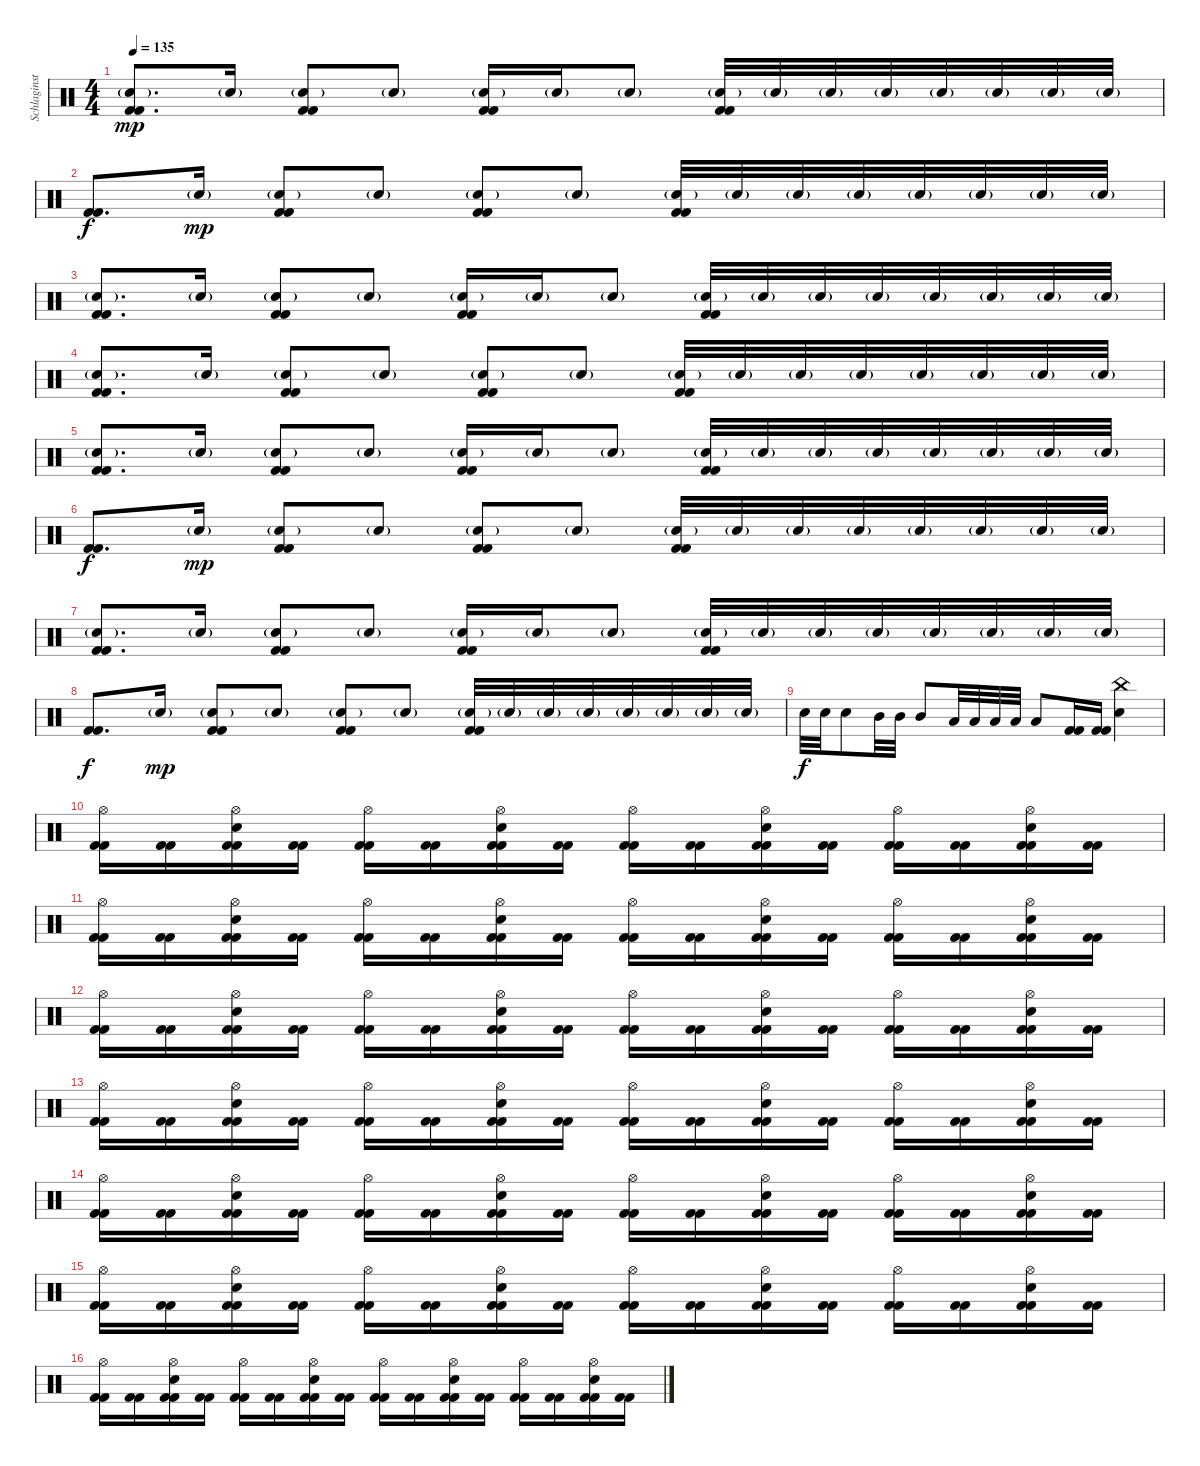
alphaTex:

\track ("Schlaginstrumente - Auswahl" "Schlaginst") {instrument percussion}
\staff {score}
\articulation defaults
\ts (4 4)
\tempo 135
\clef neutral
\ks c
("Snare (hit) 2"{g} "Kick (hit) 2" "Kick (hit) 2").8{d dy mp} "Snare (hit) 2"{g}.16 ("Snare (hit) 2"{g} "Kick (hit) 2" "Kick (hit) 2").8 "Snare (hit) 2"{g}.8 ("Snare (hit) 2"{g} "Kick (hit) 2" "Kick (hit) 2").16 "Snare (hit) 2"{g}.16 "Snare (hit) 2"{g}.8 ("Snare (hit) 2"{g} "Kick (hit) 2" "Kick (hit) 2").32 "Snare (hit) 2"{g}.32 "Snare (hit) 2"{g}.32 "Snare (hit) 2"{g}.32 "Snare (hit) 2"{g}.32 "Snare (hit) 2"{g}.32 "Snare (hit) 2"{g}.32 "Snare (hit) 2"{g}.32 |
("Kick (hit) 2" "Kick (hit) 2").8{d dy f} "Snare (hit) 2"{g}.16{dy mp} ("Snare (hit) 2"{g} "Kick (hit) 2" "Kick (hit) 2").8 "Snare (hit) 2"{g}.8 ("Snare (hit) 2"{g} "Kick (hit) 2" "Kick (hit) 2").8 "Snare (hit) 2"{g}.8 ("Snare (hit) 2"{g} "Kick (hit) 2" "Kick (hit) 2").32 "Snare (hit) 2"{g}.32 "Snare (hit) 2"{g}.32 "Snare (hit) 2"{g}.32 "Snare (hit) 2"{g}.32 "Snare (hit) 2"{g}.32 "Snare (hit) 2"{g}.32 "Snare (hit) 2"{g}.32 |
("Snare (hit) 2"{g} "Kick (hit) 2" "Kick (hit) 2").8{d} "Snare (hit) 2"{g}.16 ("Snare (hit) 2"{g} "Kick (hit) 2" "Kick (hit) 2").8 "Snare (hit) 2"{g}.8 ("Snare (hit) 2"{g} "Kick (hit) 2" "Kick (hit) 2").16 "Snare (hit) 2"{g}.16 "Snare (hit) 2"{g}.8 ("Snare (hit) 2"{g} "Kick (hit) 2" "Kick (hit) 2").32 "Snare (hit) 2"{g}.32 "Snare (hit) 2"{g}.32 "Snare (hit) 2"{g}.32 "Snare (hit) 2"{g}.32 "Snare (hit) 2"{g}.32 "Snare (hit) 2"{g}.32 "Snare (hit) 2"{g}.32 |
("Snare (hit) 2"{g} "Kick (hit) 2" "Kick (hit) 2").8{d} "Snare (hit) 2"{g}.16 ("Snare (hit) 2"{g} "Kick (hit) 2" "Kick (hit) 2").8 "Snare (hit) 2"{g}.8 ("Snare (hit) 2"{g} "Kick (hit) 2" "Kick (hit) 2").8 "Snare (hit) 2"{g}.8 ("Snare (hit) 2"{g} "Kick (hit) 2" "Kick (hit) 2").32 "Snare (hit) 2"{g}.32 "Snare (hit) 2"{g}.32 "Snare (hit) 2"{g}.32 "Snare (hit) 2"{g}.32 "Snare (hit) 2"{g}.32 "Snare (hit) 2"{g}.32 "Snare (hit) 2"{g}.32 |
("Snare (hit) 2"{g} "Kick (hit) 2" "Kick (hit) 2").8{d} "Snare (hit) 2"{g}.16 ("Snare (hit) 2"{g} "Kick (hit) 2" "Kick (hit) 2").8 "Snare (hit) 2"{g}.8 ("Snare (hit) 2"{g} "Kick (hit) 2" "Kick (hit) 2").16 "Snare (hit) 2"{g}.16 "Snare (hit) 2"{g}.8 ("Snare (hit) 2"{g} "Kick (hit) 2" "Kick (hit) 2").32 "Snare (hit) 2"{g}.32 "Snare (hit) 2"{g}.32 "Snare (hit) 2"{g}.32 "Snare (hit) 2"{g}.32 "Snare (hit) 2"{g}.32 "Snare (hit) 2"{g}.32 "Snare (hit) 2"{g}.32 |
("Kick (hit) 2" "Kick (hit) 2").8{d dy f} "Snare (hit) 2"{g}.16{dy mp} ("Snare (hit) 2"{g} "Kick (hit) 2" "Kick (hit) 2").8 "Snare (hit) 2"{g}.8 ("Snare (hit) 2"{g} "Kick (hit) 2" "Kick (hit) 2").8 "Snare (hit) 2"{g}.8 ("Snare (hit) 2"{g} "Kick (hit) 2" "Kick (hit) 2").32 "Snare (hit) 2"{g}.32 "Snare (hit) 2"{g}.32 "Snare (hit) 2"{g}.32 "Snare (hit) 2"{g}.32 "Snare (hit) 2"{g}.32 "Snare (hit) 2"{g}.32 "Snare (hit) 2"{g}.32 |
("Snare (hit) 2"{g} "Kick (hit) 2" "Kick (hit) 2").8{d} "Snare (hit) 2"{g}.16 ("Snare (hit) 2"{g} "Kick (hit) 2" "Kick (hit) 2").8 "Snare (hit) 2"{g}.8 ("Snare (hit) 2"{g} "Kick (hit) 2" "Kick (hit) 2").16 "Snare (hit) 2"{g}.16 "Snare (hit) 2"{g}.8 ("Snare (hit) 2"{g} "Kick (hit) 2" "Kick (hit) 2").32 "Snare (hit) 2"{g}.32 "Snare (hit) 2"{g}.32 "Snare (hit) 2"{g}.32 "Snare (hit) 2"{g}.32 "Snare (hit) 2"{g}.32 "Snare (hit) 2"{g}.32 "Snare (hit) 2"{g}.32 |
("Kick (hit) 2" "Kick (hit) 2").8{d dy f} "Snare (hit) 2"{g}.16{dy mp} ("Snare (hit) 2"{g} "Kick (hit) 2" "Kick (hit) 2").8 "Snare (hit) 2"{g}.8 ("Snare (hit) 2"{g} "Kick (hit) 2" "Kick (hit) 2").8 "Snare (hit) 2"{g}.8 ("Snare (hit) 2"{g} "Kick (hit) 2" "Kick (hit) 2").32 "Snare (hit) 2"{g}.32 "Snare (hit) 2"{g}.32 "Snare (hit) 2"{g}.32 "Snare (hit) 2"{g}.32 "Snare (hit) 2"{g}.32 "Snare (hit) 2"{g}.32 "Snare (hit) 2"{g}.32 |
"Snare (hit) 2".32{dy f} "Snare (hit) 2".32 "Snare (hit) 2".8 "Mid Tom (hit)".32 "Mid Tom (hit)".32 "Mid Tom (hit)".8 "Low Tom (hit)".32 "Low Tom (hit)".32 "Low Tom (hit)".32 "Low Tom (hit)".32 "Low Tom (hit)".8 ("Kick (hit) 2" "Kick (hit) 2").16 ("Kick (hit) 2" "Kick (hit) 2").16 ("China (hit)" "Snare (hit) 2").4 |
("Hi-Hat (open)" "Kick (hit) 2" "Kick (hit) 2").16 ("Kick (hit) 2" "Kick (hit) 2").16 ("Hi-Hat (open)" "Snare (hit) 2" "Kick (hit) 2" "Kick (hit) 2").16 ("Kick (hit) 2" "Kick (hit) 2").16 ("Hi-Hat (open)" "Kick (hit) 2" "Kick (hit) 2").16 ("Kick (hit) 2" "Kick (hit) 2").16 ("Hi-Hat (open)" "Snare (hit) 2" "Kick (hit) 2" "Kick (hit) 2").16 ("Kick (hit) 2" "Kick (hit) 2").16 ("Hi-Hat (open)" "Kick (hit) 2" "Kick (hit) 2").16 ("Kick (hit) 2" "Kick (hit) 2").16 ("Hi-Hat (open)" "Snare (hit) 2" "Kick (hit) 2" "Kick (hit) 2").16 ("Kick (hit) 2" "Kick (hit) 2").16 ("Hi-Hat (open)" "Kick (hit) 2" "Kick (hit) 2").16 ("Kick (hit) 2" "Kick (hit) 2").16 ("Hi-Hat (open)" "Snare (hit) 2" "Kick (hit) 2" "Kick (hit) 2").16 ("Kick (hit) 2" "Kick (hit) 2").16 |
("Hi-Hat (open)" "Kick (hit) 2" "Kick (hit) 2").16 ("Kick (hit) 2" "Kick (hit) 2").16 ("Hi-Hat (open)" "Snare (hit) 2" "Kick (hit) 2" "Kick (hit) 2").16 ("Kick (hit) 2" "Kick (hit) 2").16 ("Hi-Hat (open)" "Kick (hit) 2" "Kick (hit) 2").16 ("Kick (hit) 2" "Kick (hit) 2").16 ("Hi-Hat (open)" "Snare (hit) 2" "Kick (hit) 2" "Kick (hit) 2").16 ("Kick (hit) 2" "Kick (hit) 2").16 ("Hi-Hat (open)" "Kick (hit) 2" "Kick (hit) 2").16 ("Kick (hit) 2" "Kick (hit) 2").16 ("Hi-Hat (open)" "Snare (hit) 2" "Kick (hit) 2" "Kick (hit) 2").16 ("Kick (hit) 2" "Kick (hit) 2").16 ("Hi-Hat (open)" "Kick (hit) 2" "Kick (hit) 2").16 ("Kick (hit) 2" "Kick (hit) 2").16 ("Hi-Hat (open)" "Snare (hit) 2" "Kick (hit) 2" "Kick (hit) 2").16 ("Kick (hit) 2" "Kick (hit) 2").16 |
("Hi-Hat (open)" "Kick (hit) 2" "Kick (hit) 2").16 ("Kick (hit) 2" "Kick (hit) 2").16 ("Hi-Hat (open)" "Snare (hit) 2" "Kick (hit) 2" "Kick (hit) 2").16 ("Kick (hit) 2" "Kick (hit) 2").16 ("Hi-Hat (open)" "Kick (hit) 2" "Kick (hit) 2").16 ("Kick (hit) 2" "Kick (hit) 2").16 ("Hi-Hat (open)" "Snare (hit) 2" "Kick (hit) 2" "Kick (hit) 2").16 ("Kick (hit) 2" "Kick (hit) 2").16 ("Hi-Hat (open)" "Kick (hit) 2" "Kick (hit) 2").16 ("Kick (hit) 2" "Kick (hit) 2").16 ("Hi-Hat (open)" "Snare (hit) 2" "Kick (hit) 2" "Kick (hit) 2").16 ("Kick (hit) 2" "Kick (hit) 2").16 ("Hi-Hat (open)" "Kick (hit) 2" "Kick (hit) 2").16 ("Kick (hit) 2" "Kick (hit) 2").16 ("Hi-Hat (open)" "Snare (hit) 2" "Kick (hit) 2" "Kick (hit) 2").16 ("Kick (hit) 2" "Kick (hit) 2").16 |
("Hi-Hat (open)" "Kick (hit) 2" "Kick (hit) 2").16 ("Kick (hit) 2" "Kick (hit) 2").16 ("Hi-Hat (open)" "Snare (hit) 2" "Kick (hit) 2" "Kick (hit) 2").16 ("Kick (hit) 2" "Kick (hit) 2").16 ("Hi-Hat (open)" "Kick (hit) 2" "Kick (hit) 2").16 ("Kick (hit) 2" "Kick (hit) 2").16 ("Hi-Hat (open)" "Snare (hit) 2" "Kick (hit) 2" "Kick (hit) 2").16 ("Kick (hit) 2" "Kick (hit) 2").16 ("Hi-Hat (open)" "Kick (hit) 2" "Kick (hit) 2").16 ("Kick (hit) 2" "Kick (hit) 2").16 ("Hi-Hat (open)" "Snare (hit) 2" "Kick (hit) 2" "Kick (hit) 2").16 ("Kick (hit) 2" "Kick (hit) 2").16 ("Hi-Hat (open)" "Kick (hit) 2" "Kick (hit) 2").16 ("Kick (hit) 2" "Kick (hit) 2").16 ("Hi-Hat (open)" "Snare (hit) 2" "Kick (hit) 2" "Kick (hit) 2").16 ("Kick (hit) 2" "Kick (hit) 2").16 |
("Hi-Hat (open)" "Kick (hit) 2" "Kick (hit) 2").16 ("Kick (hit) 2" "Kick (hit) 2").16 ("Hi-Hat (open)" "Snare (hit) 2" "Kick (hit) 2" "Kick (hit) 2").16 ("Kick (hit) 2" "Kick (hit) 2").16 ("Hi-Hat (open)" "Kick (hit) 2" "Kick (hit) 2").16 ("Kick (hit) 2" "Kick (hit) 2").16 ("Hi-Hat (open)" "Snare (hit) 2" "Kick (hit) 2" "Kick (hit) 2").16 ("Kick (hit) 2" "Kick (hit) 2").16 ("Hi-Hat (open)" "Kick (hit) 2" "Kick (hit) 2").16 ("Kick (hit) 2" "Kick (hit) 2").16 ("Hi-Hat (open)" "Snare (hit) 2" "Kick (hit) 2" "Kick (hit) 2").16 ("Kick (hit) 2" "Kick (hit) 2").16 ("Hi-Hat (open)" "Kick (hit) 2" "Kick (hit) 2").16 ("Kick (hit) 2" "Kick (hit) 2").16 ("Hi-Hat (open)" "Snare (hit) 2" "Kick (hit) 2" "Kick (hit) 2").16 ("Kick (hit) 2" "Kick (hit) 2").16 |
("Hi-Hat (open)" "Kick (hit) 2" "Kick (hit) 2").16 ("Kick (hit) 2" "Kick (hit) 2").16 ("Hi-Hat (open)" "Snare (hit) 2" "Kick (hit) 2" "Kick (hit) 2").16 ("Kick (hit) 2" "Kick (hit) 2").16 ("Hi-Hat (open)" "Kick (hit) 2" "Kick (hit) 2").16 ("Kick (hit) 2" "Kick (hit) 2").16 ("Hi-Hat (open)" "Snare (hit) 2" "Kick (hit) 2" "Kick (hit) 2").16 ("Kick (hit) 2" "Kick (hit) 2").16 ("Hi-Hat (open)" "Kick (hit) 2" "Kick (hit) 2").16 ("Kick (hit) 2" "Kick (hit) 2").16 ("Hi-Hat (open)" "Snare (hit) 2" "Kick (hit) 2" "Kick (hit) 2").16 ("Kick (hit) 2" "Kick (hit) 2").16 ("Hi-Hat (open)" "Kick (hit) 2" "Kick (hit) 2").16 ("Kick (hit) 2" "Kick (hit) 2").16 ("Hi-Hat (open)" "Snare (hit) 2" "Kick (hit) 2" "Kick (hit) 2").16 ("Kick (hit) 2" "Kick (hit) 2").16 |
("Hi-Hat (open)" "Kick (hit) 2" "Kick (hit) 2").16 ("Kick (hit) 2" "Kick (hit) 2").16 ("Hi-Hat (open)" "Snare (hit) 2" "Kick (hit) 2" "Kick (hit) 2").16 ("Kick (hit) 2" "Kick (hit) 2").16 ("Hi-Hat (open)" "Kick (hit) 2" "Kick (hit) 2").16 ("Kick (hit) 2" "Kick (hit) 2").16 ("Hi-Hat (open)" "Snare (hit) 2" "Kick (hit) 2" "Kick (hit) 2").16 ("Kick (hit) 2" "Kick (hit) 2").16 ("Hi-Hat (open)" "Kick (hit) 2" "Kick (hit) 2").16 ("Kick (hit) 2" "Kick (hit) 2").16 ("Hi-Hat (open)" "Snare (hit) 2" "Kick (hit) 2" "Kick (hit) 2").16 ("Kick (hit) 2" "Kick (hit) 2").16 ("Hi-Hat (open)" "Kick (hit) 2" "Kick (hit) 2").16 ("Kick (hit) 2" "Kick (hit) 2").16 ("Hi-Hat (open)" "Snare (hit) 2" "Kick (hit) 2" "Kick (hit) 2").16 ("Kick (hit) 2" "Kick (hit) 2").16
